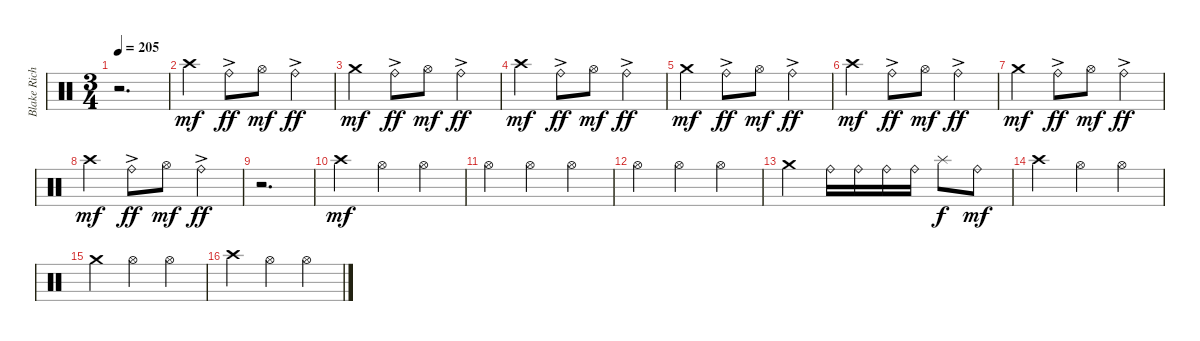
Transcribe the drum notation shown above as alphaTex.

\track ("Blake Richardson Drums" "Blake Rich") {instrument percussion}
\staff {score}
\articulation defaults
\ts (3 4)
\tempo 205
\clef neutral
\ks c
r.2{d dy mf} |
"Crash high (hit)".4 "Ride (bell)"{ac}.8{dy ff} "Hi-Hat (open)".8{dy mf} "Ride (bell)"{ac}.4{dy ff} |
"Crash medium (hit)".4{dy mf} "Ride (bell)"{ac}.8{dy ff} "Hi-Hat (open)".8{dy mf} "Ride (bell)"{ac}.4{dy ff} |
"Crash high (hit)".4{dy mf} "Ride (bell)"{ac}.8{dy ff} "Hi-Hat (open)".8{dy mf} "Ride (bell)"{ac}.4{dy ff} |
"Crash medium (hit)".4{dy mf} "Ride (bell)"{ac}.8{dy ff} "Hi-Hat (open)".8{dy mf} "Ride (bell)"{ac}.4{dy ff} |
"Crash high (hit)".4{dy mf} "Ride (bell)"{ac}.8{dy ff} "Hi-Hat (open)".8{dy mf} "Ride (bell)"{ac}.4{dy ff} |
"Crash medium (hit)".4{dy mf} "Ride (bell)"{ac}.8{dy ff} "Hi-Hat (open)".8{dy mf} "Ride (bell)"{ac}.4{dy ff} |
"Crash high (hit)".4{dy mf} "Ride (bell)"{ac}.8{dy ff} "Hi-Hat (open)".8{dy mf} "Ride (bell)"{ac}.4{dy ff} |
r.2{d} |
"Crash high (hit)".4{dy mf} "Hi-Hat (open)".4 "Hi-Hat (open)".4 |
"Hi-Hat (open)".4 "Hi-Hat (open)".4 "Hi-Hat (open)".4 |
"Hi-Hat (open)".4 "Hi-Hat (open)".4 "Hi-Hat (open)".4 |
"Crash medium (hit)".4 "Ride (bell)".16 "Ride (bell)".16 "Ride (bell)".16 "Ride (bell)".16 "Splash (hit)".8{dy f} "Ride (bell)".8{dy mf} |
"Crash high (hit)".4 "Hi-Hat (open)".4 "Hi-Hat (open)".4 |
"Crash medium (hit)".4 "Hi-Hat (open)".4 "Hi-Hat (open)".4 |
"Crash high (hit)".4 "Hi-Hat (open)".4 "Hi-Hat (open)".4
